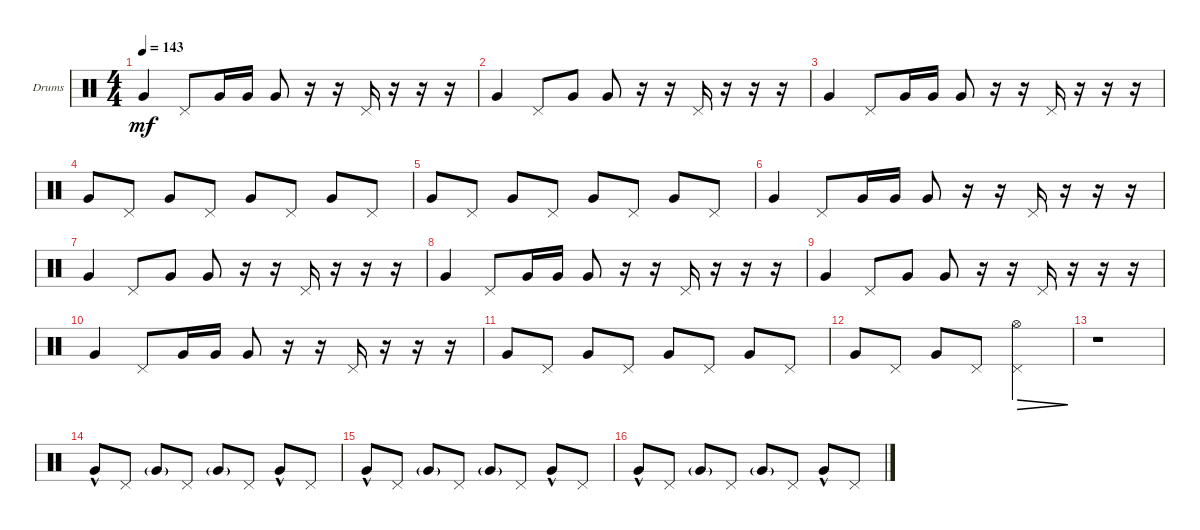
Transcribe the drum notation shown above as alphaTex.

\defaultSystemsLayout 4
\bracketExtendMode groupsimilarinstruments
\firstSystemTrackNameOrientation horizontal
\otherSystemsTrackNameOrientation horizontal
\track ("Drumkit" "Drums") {instrument percussion}
\staff {score}
\articulation defaults
\ts (4 4)
\tempo 143
\clef neutral
\ks c "Very Low Tom (hit)".4{dy mf} "Pedal Hi-Hat (hit)".8 "Very Low Tom (hit)".16 "Very Low Tom (hit)".16 "Very Low Tom (hit)".8
r.16 r.16 "Pedal Hi-Hat (hit)".16 r.16 r.16 r.16 |
"Very Low Tom (hit)".4 "Pedal Hi-Hat (hit)".8 "Very Low Tom (hit)".8 "Very Low Tom (hit)".8 r.16 r.16 "Pedal Hi-Hat (hit)".16 r.16 r.16 r.16 |
"Very Low Tom (hit)".4 "Pedal Hi-Hat (hit)".8 "Very Low Tom (hit)".16 "Very Low Tom (hit)".16 "Very Low Tom (hit)".8 r.16 r.16 "Pedal Hi-Hat (hit)".16 r.16 r.16 r.16 |
"Very Low Tom (hit)".8 "Pedal Hi-Hat (hit)".8 "Very Low Tom (hit)".8 "Pedal Hi-Hat (hit)".8 "Very Low Tom (hit)".8 "Pedal Hi-Hat (hit)".8 "Very Low Tom (hit)".8 "Pedal Hi-Hat (hit)".8 |
"Very Low Tom (hit)".8 "Pedal Hi-Hat (hit)".8 "Very Low Tom (hit)".8 "Pedal Hi-Hat (hit)".8 "Very Low Tom (hit)".8 "Pedal Hi-Hat (hit)".8 "Very Low Tom (hit)".8 "Pedal Hi-Hat (hit)".8 |
"Very Low Tom (hit)".4 "Pedal Hi-Hat (hit)".8 "Very Low Tom (hit)".16 "Very Low Tom (hit)".16 "Very Low Tom (hit)".8 r.16 r.16 "Pedal Hi-Hat (hit)".16 r.16 r.16 r.16 |
"Very Low Tom (hit)".4 "Pedal Hi-Hat (hit)".8 "Very Low Tom (hit)".8 "Very Low Tom (hit)".8 r.16 r.16 "Pedal Hi-Hat (hit)".16 r.16 r.16 r.16 |
"Very Low Tom (hit)".4 "Pedal Hi-Hat (hit)".8 "Very Low Tom (hit)".16 "Very Low Tom (hit)".16 "Very Low Tom (hit)".8 r.16 r.16 "Pedal Hi-Hat (hit)".16 r.16 r.16 r.16 |
"Very Low Tom (hit)".4 "Pedal Hi-Hat (hit)".8 "Very Low Tom (hit)".8 "Very Low Tom (hit)".8 r.16 r.16 "Pedal Hi-Hat (hit)".16 r.16 r.16 r.16 |
"Very Low Tom (hit)".4 "Pedal Hi-Hat (hit)".8 "Very Low Tom (hit)".16 "Very Low Tom (hit)".16 "Very Low Tom (hit)".8 r.16 r.16 "Pedal Hi-Hat (hit)".16 r.16 r.16 r.16 |
"Very Low Tom (hit)".8 "Pedal Hi-Hat (hit)".8 "Very Low Tom (hit)".8 "Pedal Hi-Hat (hit)".8 "Very Low Tom (hit)".8 "Pedal Hi-Hat (hit)".8 "Very Low Tom (hit)".8 "Pedal Hi-Hat (hit)".8 |
"Very Low Tom (hit)".8 "Pedal Hi-Hat (hit)".8 "Very Low Tom (hit)".8 "Pedal Hi-Hat (hit)".8 ("Pedal Hi-Hat (hit)" "Hi-Hat (open)").2{dec} |
r.1 |
"Very Low Tom (hit)"{hac}.8 "Pedal Hi-Hat (hit)".8 "Very Low Tom (hit)"{g}.8 "Pedal Hi-Hat (hit)".8 "Very Low Tom (hit)"{g}.8 "Pedal Hi-Hat (hit)".8 "Very Low Tom (hit)"{hac}.8 "Pedal Hi-Hat (hit)".8 |
"Very Low Tom (hit)"{hac}.8 "Pedal Hi-Hat (hit)".8 "Very Low Tom (hit)"{g}.8 "Pedal Hi-Hat (hit)".8 "Very Low Tom (hit)"{g}.8 "Pedal Hi-Hat (hit)".8 "Very Low Tom (hit)"{hac}.8 "Pedal Hi-Hat (hit)".8 |
"Very Low Tom (hit)"{hac}.8 "Pedal Hi-Hat (hit)".8 "Very Low Tom (hit)"{g}.8 "Pedal Hi-Hat (hit)".8 "Very Low Tom (hit)"{g}.8 "Pedal Hi-Hat (hit)".8 "Very Low Tom (hit)"{hac}.8 "Pedal Hi-Hat (hit)".8
